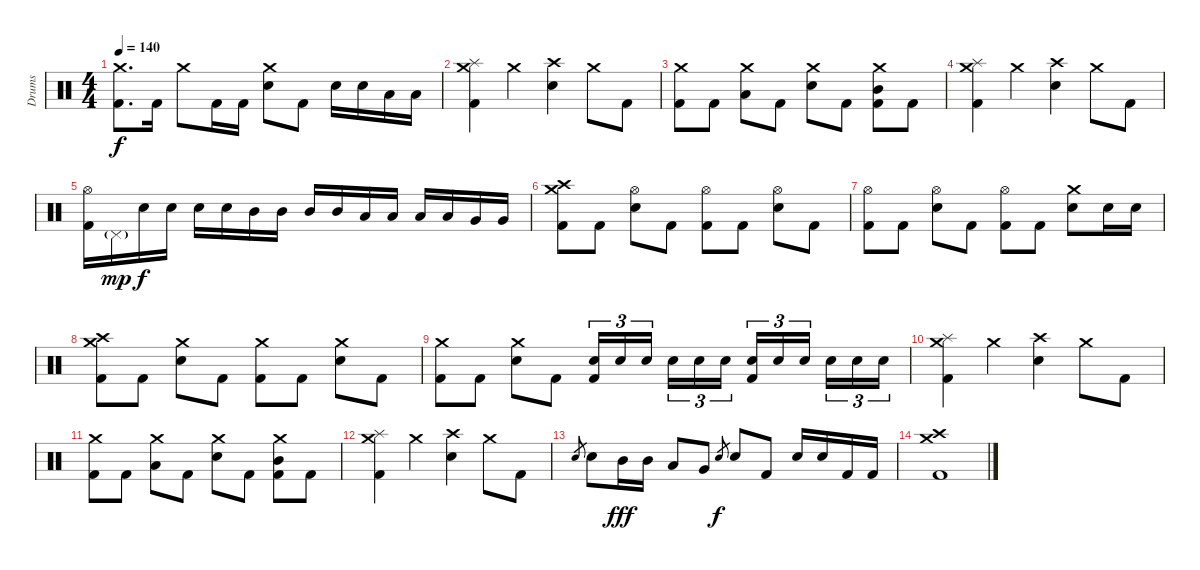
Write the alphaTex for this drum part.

\track ("Drums" "Drums") {instrument percussion}
\staff {score}
\articulation defaults
\ts (4 4)
\tempo 140
\clef neutral
\ks c
("Crash medium (hit)" "Kick (hit) 2").8{d dy f} "Kick (hit) 2".16 "Crash medium (hit)".8 "Kick (hit) 2".16 "Kick (hit) 2".16 ("Crash medium (hit)" "Electric Snare (hit)").8 "Kick (hit) 2".8 "Electric Snare (hit)".16 "Electric Snare (hit)".16 "Low Tom (hit)".16 "Low Tom (hit)".16 |
("Crash medium (hit)" "Splash (hit)" "Kick (hit) 2").4 "Crash medium (hit)".4 ("Crash high (hit)" "Electric Snare (hit)").4 "Crash medium (hit)".8 "Kick (hit) 2".8 |
("Crash medium (hit)" "Kick (hit) 2").8 "Kick (hit) 2".8 ("Crash medium (hit)" "Low Tom (hit)").8 "Kick (hit) 2".8 ("Crash medium (hit)" "Electric Snare (hit)").8 "Kick (hit) 2".8 ("Crash medium (hit)" "Mid Tom (hit)" "Kick (hit) 2").8 "Kick (hit) 2".8 |
("Crash medium (hit)" "Splash (hit)" "Kick (hit) 2").4 "Crash medium (hit)".4 ("Crash high (hit)" "Electric Snare (hit)").4 "Crash medium (hit)".8 "Kick (hit) 2".8 |
("Hi-Hat (open)" "Kick (hit) 2").16 "Pedal Hi-Hat (hit)"{g}.16{dy mp} "Electric Snare (hit)".16{dy f} "Electric Snare (hit)".16 "Electric Snare (hit)".16 "Electric Snare (hit)".16 "Mid Tom (hit)".16 "Mid Tom (hit)".16 "Mid Tom (hit)".16 "Mid Tom (hit)".16 "Low Tom (hit)".16 "Low Tom (hit)".16 "Low Tom (hit)".16 "Low Tom (hit)".16 "Very Low Tom (hit)".16 "Very Low Tom (hit)".16 |
("Crash medium (hit)" "Crash high (hit)" "Kick (hit) 2").8 "Kick (hit) 2".8 ("Hi-Hat (open)" "Electric Snare (hit)").8 "Kick (hit) 2".8 ("Hi-Hat (open)" "Kick (hit) 2").8 "Kick (hit) 2".8 ("Hi-Hat (open)" "Electric Snare (hit)").8 "Kick (hit) 2".8 |
("Hi-Hat (open)" "Kick (hit) 2").8 "Kick (hit) 2".8 ("Hi-Hat (open)" "Electric Snare (hit)").8 "Kick (hit) 2".8 ("Hi-Hat (open)" "Kick (hit) 2").8 "Kick (hit) 2".8 ("Crash medium (hit)" "Electric Snare (hit)").8 "Electric Snare (hit)".16 "Electric Snare (hit)".16 |
("Crash medium (hit)" "Crash high (hit)" "Kick (hit) 2").8 "Kick (hit) 2".8 ("Crash medium (hit)" "Electric Snare (hit)").8 "Kick (hit) 2".8 ("Crash medium (hit)" "Kick (hit) 2").8 "Kick (hit) 2".8 ("Crash medium (hit)" "Electric Snare (hit)").8 "Kick (hit) 2".8 |
("Crash medium (hit)" "Kick (hit) 2").8 "Kick (hit) 2".8 ("Crash medium (hit)" "Electric Snare (hit)").8 "Kick (hit) 2".8 ("Electric Snare (hit)" "Kick (hit) 2").16{tu (3 2)} "Electric Snare (hit)".16{tu (3 2)} "Electric Snare (hit)".16{tu (3 2) beam splitsecondary} "Electric Snare (hit)".16{tu (3 2)} "Electric Snare (hit)".16{tu (3 2)} "Electric Snare (hit)".16{tu (3 2)} ("Electric Snare (hit)" "Kick (hit) 2").16{tu (3 2)} "Electric Snare (hit)".16{tu (3 2)} "Electric Snare (hit)".16{tu (3 2) beam splitsecondary} "Electric Snare (hit)".16{tu (3 2)} "Electric Snare (hit)".16{tu (3 2)} "Electric Snare (hit)".16{tu (3 2)} |
("Crash medium (hit)" "Splash (hit)" "Kick (hit) 2").4 "Crash medium (hit)".4 ("Crash high (hit)" "Electric Snare (hit)").4 "Crash medium (hit)".8 "Kick (hit) 2".8 |
("Crash medium (hit)" "Kick (hit) 2").8 "Kick (hit) 2".8 ("Crash medium (hit)" "Low Tom (hit)").8 "Kick (hit) 2".8 ("Crash medium (hit)" "Electric Snare (hit)").8 "Kick (hit) 2".8 ("Crash medium (hit)" "Mid Tom (hit)" "Kick (hit) 2").8 "Kick (hit) 2".8 |
("Crash medium (hit)" "Splash (hit)" "Kick (hit) 2").4 "Crash medium (hit)".4 ("Crash high (hit)" "Electric Snare (hit)").4 "Crash medium (hit)".8 "Kick (hit) 2".8 |
"Electric Snare (hit)".8{gr} "Electric Snare (hit)".8 "Mid Tom (hit)".16{dy fff} "Mid Tom (hit)".16 "Low Tom (hit)".8 "Very Low Tom (hit)".8 "Electric Snare (hit)".8{gr dy f} "Electric Snare (hit)".8 "Kick (hit) 2".8 "Electric Snare (hit)".16 "Electric Snare (hit)".16 "Kick (hit) 2".16 "Kick (hit) 2".16 |
("Crash medium (hit)" "Crash high (hit)" "Kick (hit) 2").1
